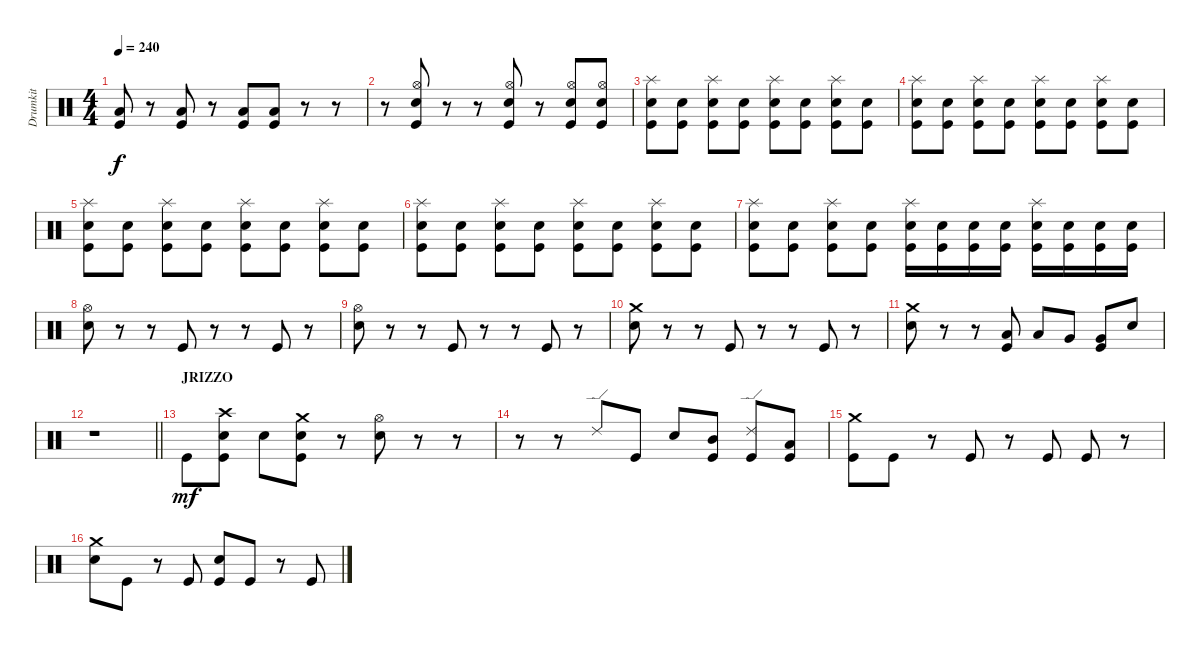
\track ("Drumkit" "Drumkit") {instrument percussion}
\staff {score}
\articulation defaults
\ts (4 4)
\tempo 240
\clef neutral
\ks c
("Low Floor Tom (hit)" "Kick (hit)").8{dy f} r.8 ("Low Floor Tom (hit)" "Kick (hit)").8 r.8 ("Low Floor Tom (hit)" "Kick (hit)").8 ("Low Floor Tom (hit)" "Kick (hit)").8 r.8 r.8 |
r.8 ("Hi-Hat (open)" "Snare (hit) 2" "Kick (hit)").8 r.8 r.8 ("Hi-Hat (open)" "Snare (hit) 2" "Kick (hit)").8 r.8 ("Hi-Hat (open)" "Snare (hit) 2" "Kick (hit)").8 ("Hi-Hat (open)" "Snare (hit) 2" "Kick (hit)").8 |
("Splash (hit)" "Snare (hit) 2" "Kick (hit)").8 ("Snare (hit) 2" "Kick (hit)").8 ("Splash (hit)" "Snare (hit) 2" "Kick (hit)").8 ("Snare (hit) 2" "Kick (hit)").8 ("Splash (hit)" "Snare (hit) 2" "Kick (hit)").8 ("Snare (hit) 2" "Kick (hit)").8 ("Splash (hit)" "Snare (hit) 2" "Kick (hit)").8 ("Snare (hit) 2" "Kick (hit)").8 |
("Splash (hit)" "Snare (hit) 2" "Kick (hit)").8 ("Snare (hit) 2" "Kick (hit)").8 ("Splash (hit)" "Snare (hit) 2" "Kick (hit)").8 ("Snare (hit) 2" "Kick (hit)").8 ("Splash (hit)" "Snare (hit) 2" "Kick (hit)").8 ("Snare (hit) 2" "Kick (hit)").8 ("Splash (hit)" "Snare (hit) 2" "Kick (hit)").8 ("Snare (hit) 2" "Kick (hit)").8 |
("Splash (hit)" "Snare (hit) 2" "Kick (hit)").8 ("Snare (hit) 2" "Kick (hit)").8 ("Splash (hit)" "Snare (hit) 2" "Kick (hit)").8 ("Snare (hit) 2" "Kick (hit)").8 ("Splash (hit)" "Snare (hit) 2" "Kick (hit)").8 ("Snare (hit) 2" "Kick (hit)").8 ("Splash (hit)" "Snare (hit) 2" "Kick (hit)").8 ("Snare (hit) 2" "Kick (hit)").8 |
("Splash (hit)" "Snare (hit) 2" "Kick (hit)").8 ("Snare (hit) 2" "Kick (hit)").8 ("Splash (hit)" "Snare (hit) 2" "Kick (hit)").8 ("Snare (hit) 2" "Kick (hit)").8 ("Splash (hit)" "Snare (hit) 2" "Kick (hit)").8 ("Snare (hit) 2" "Kick (hit)").8 ("Splash (hit)" "Snare (hit) 2" "Kick (hit)").8 ("Snare (hit) 2" "Kick (hit)").8 |
("Splash (hit)" "Snare (hit) 2" "Kick (hit)").8 ("Snare (hit) 2" "Kick (hit)").8 ("Splash (hit)" "Snare (hit) 2" "Kick (hit)").8 ("Snare (hit) 2" "Kick (hit)").8 ("Splash (hit)" "Snare (hit) 2" "Kick (hit)").16 ("Snare (hit) 2" "Kick (hit)").16 ("Snare (hit) 2" "Kick (hit)").16 ("Snare (hit) 2" "Kick (hit)").16 ("Splash (hit)" "Snare (hit) 2" "Kick (hit)").16 ("Snare (hit) 2" "Kick (hit)").16 ("Snare (hit) 2" "Kick (hit)").16 ("Snare (hit) 2" "Kick (hit)").16 |
("Hi-Hat (open)" "Snare (hit) 2").8 r.8 r.8 "Kick (hit)".8 r.8 r.8 "Kick (hit)".8 r.8 |
("Hi-Hat (open)" "Snare (hit) 2").8 r.8 r.8 "Kick (hit)".8 r.8 r.8 "Kick (hit)".8 r.8 |
("Crash medium (hit)" "Snare (hit) 2").8 r.8 r.8 "Kick (hit)".8 r.8 r.8 "Kick (hit)".8 r.8 |
("Crash medium (hit)" "Snare (hit) 2").8 r.8 r.8 ("Low Tom (hit)" "Kick (hit)").8 "Low Tom (hit)".8 "Very Low Tom (hit)".8 ("Very Low Tom (hit)" "Kick (hit)").8 "Snare (hit) 2".8 |
\barLineRight lightlight
r.1 |
\section ("" "JRIZZO")
"Kick (hit)".8{dy mf} ("Snare (hit) 2" "Crash high (hit)" "Kick (hit)").8 "Snare (hit) 2".8 ("Snare (hit) 2" "Crash medium (hit)" "Kick (hit)").8 r.8 ("Hi-Hat (open)" "Snare (hit) 2").8 r.8 r.8 |
r.8 r.8 "Ride (edge) 2".8 "Kick (hit)".8 "Snare (hit) 2".8 ("Kick (hit)" "Mid Tom (hit)").8 ("Kick (hit)" "Ride (edge) 2").8 ("Kick (hit)" "Low Tom (hit)").8 |
("Kick (hit)" "Crash medium (hit)").8 "Kick (hit)".8 r.8 "Kick (hit)".8 r.8 "Kick (hit)".8 "Kick (hit)".8 r.8 |
("Snare (hit) 2" "Crash medium (hit)").8 "Kick (hit)".8 r.8 "Kick (hit)".8 ("Snare (hit) 2" "Kick (hit)").8 "Kick (hit)".8 r.8 "Kick (hit)".8
